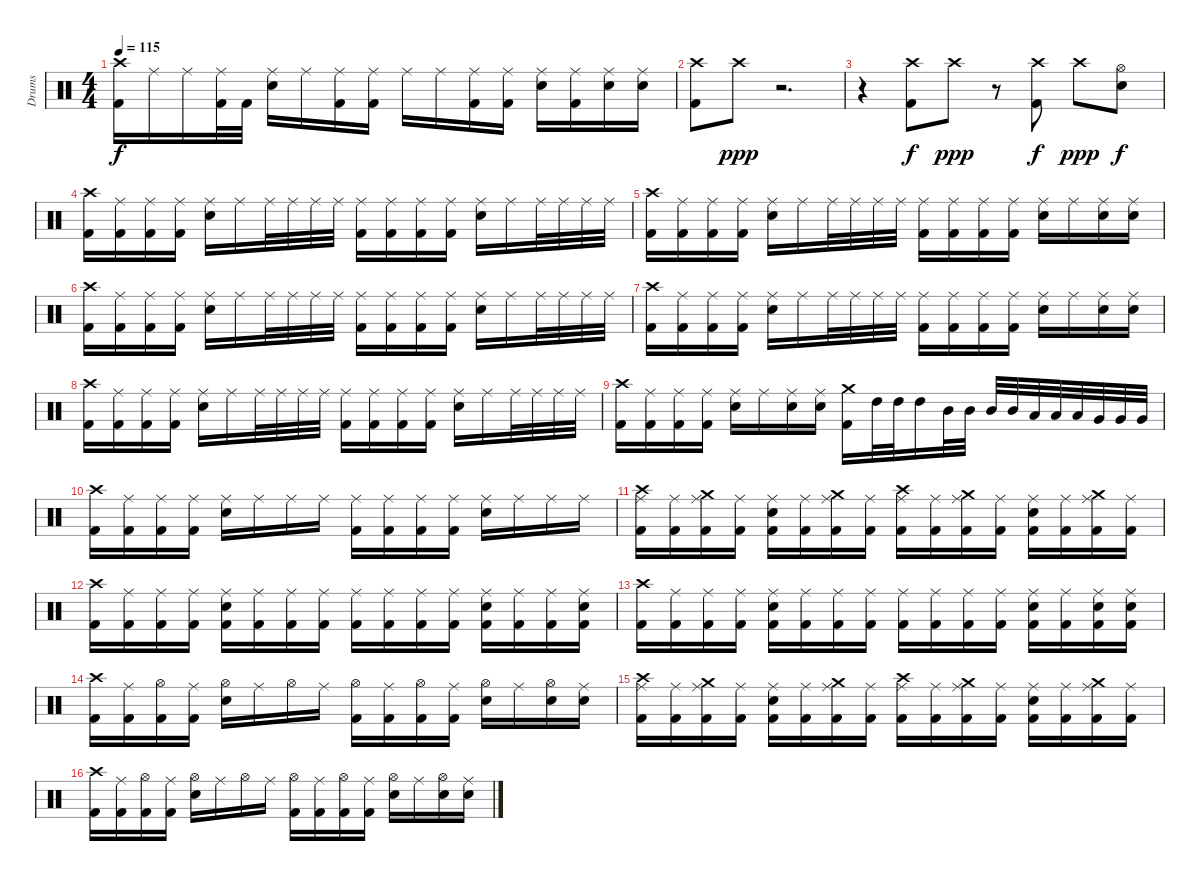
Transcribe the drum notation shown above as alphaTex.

\track ("Drums" "Drums") {instrument percussion}
\staff {score}
\articulation defaults
\ts (4 4)
\tempo 115
\clef neutral
\ks c
("Crash high (hit)" "Kick (hit) 2").16{dy f} "Ride (middle)".16 "Ride (middle)".16 ("Ride (middle)" "Kick (hit) 2").32 "Kick (hit) 2".32 ("Ride (middle)" "Electric Snare (hit)").16 "Ride (middle)".16 ("Ride (middle)" "Kick (hit) 2").16 ("Ride (middle)" "Kick (hit) 2").16 "Ride (middle)".16 "Ride (middle)".16 ("Ride (middle)" "Kick (hit) 2").16 ("Ride (middle)" "Kick (hit) 2").16 ("Ride (middle)" "Electric Snare (hit)").16 ("Ride (middle)" "Kick (hit) 2").16 ("Ride (middle)" "Electric Snare (hit)").16 ("Ride (middle)" "Electric Snare (hit)").16 |
("Crash high (hit)" "Kick (hit) 2").8 "Crash high (hit)".8{dy ppp} r.2{d} |
r.4 ("Crash high (hit)" "Kick (hit) 2").8{dy f} "Crash high (hit)".8{dy ppp} r.8 ("Crash high (hit)" "Kick (hit) 2").8{dy f} "Crash high (hit)".8{dy ppp} ("Hi-Hat (open)" "Electric Snare (hit)").8{dy f} |
("Crash high (hit)" "Kick (hit) 2").16 ("Ride (middle)" "Kick (hit) 2").16 ("Ride (middle)" "Kick (hit) 2").16 ("Ride (middle)" "Kick (hit) 2").16 ("Ride (middle)" "Electric Snare (hit)").16 "Ride (middle)".16 "Ride (middle)".32 "Ride (middle)".32 "Ride (middle)".32 "Ride (middle)".32 ("Ride (middle)" "Kick (hit) 2").16 ("Ride (middle)" "Kick (hit) 2").16 ("Ride (middle)" "Kick (hit) 2").16 ("Ride (middle)" "Kick (hit) 2").16 ("Ride (middle)" "Electric Snare (hit)").16 "Ride (middle)".16 "Ride (middle)".32 "Ride (middle)".32 "Ride (middle)".32 "Ride (middle)".32 |
("Crash high (hit)" "Kick (hit) 2").16 ("Ride (middle)" "Kick (hit) 2").16 ("Ride (middle)" "Kick (hit) 2").16 ("Ride (middle)" "Kick (hit) 2").16 ("Ride (middle)" "Electric Snare (hit)").16 "Ride (middle)".16 "Ride (middle)".32 "Ride (middle)".32 "Ride (middle)".32 "Ride (middle)".32 ("Ride (middle)" "Kick (hit) 2").16 ("Ride (middle)" "Kick (hit) 2").16 ("Ride (middle)" "Kick (hit) 2").16 ("Ride (middle)" "Kick (hit) 2").16 ("Ride (middle)" "Electric Snare (hit)").16 "Ride (middle)".16 ("Ride (middle)" "Electric Snare (hit)").16 ("Ride (middle)" "Electric Snare (hit)").16 |
("Crash high (hit)" "Kick (hit) 2").16 ("Ride (middle)" "Kick (hit) 2").16 ("Ride (middle)" "Kick (hit) 2").16 ("Ride (middle)" "Kick (hit) 2").16 ("Ride (middle)" "Electric Snare (hit)").16 "Ride (middle)".16 "Ride (middle)".32 "Ride (middle)".32 "Ride (middle)".32 "Ride (middle)".32 ("Ride (middle)" "Kick (hit) 2").16 ("Ride (middle)" "Kick (hit) 2").16 ("Ride (middle)" "Kick (hit) 2").16 ("Ride (middle)" "Kick (hit) 2").16 ("Ride (middle)" "Electric Snare (hit)").16 "Ride (middle)".16 "Ride (middle)".32 "Ride (middle)".32 "Ride (middle)".32 "Ride (middle)".32 |
("Crash high (hit)" "Kick (hit) 2").16 ("Ride (middle)" "Kick (hit) 2").16 ("Ride (middle)" "Kick (hit) 2").16 ("Ride (middle)" "Kick (hit) 2").16 ("Ride (middle)" "Electric Snare (hit)").16 "Ride (middle)".16 "Ride (middle)".32 "Ride (middle)".32 "Ride (middle)".32 "Ride (middle)".32 ("Ride (middle)" "Kick (hit) 2").16 ("Ride (middle)" "Kick (hit) 2").16 ("Ride (middle)" "Kick (hit) 2").16 ("Ride (middle)" "Kick (hit) 2").16 ("Ride (middle)" "Electric Snare (hit)").16 "Ride (middle)".16 ("Ride (middle)" "Electric Snare (hit)").16 ("Ride (middle)" "Electric Snare (hit)").16 |
("Crash high (hit)" "Kick (hit) 2").16 ("Ride (middle)" "Kick (hit) 2").16 ("Ride (middle)" "Kick (hit) 2").16 ("Ride (middle)" "Kick (hit) 2").16 ("Ride (middle)" "Electric Snare (hit)").16 "Ride (middle)".16 "Ride (middle)".32 "Ride (middle)".32 "Ride (middle)".32 "Ride (middle)".32 ("Ride (middle)" "Kick (hit) 2").16 ("Ride (middle)" "Kick (hit) 2").16 ("Ride (middle)" "Kick (hit) 2").16 ("Ride (middle)" "Kick (hit) 2").16 ("Ride (middle)" "Electric Snare (hit)").16 "Ride (middle)".16 "Ride (middle)".32 "Ride (middle)".32 "Ride (middle)".32 "Ride (middle)".32 |
("Crash high (hit)" "Kick (hit) 2").16 ("Ride (middle)" "Kick (hit) 2").16 ("Ride (middle)" "Kick (hit) 2").16 ("Ride (middle)" "Kick (hit) 2").16 ("Ride (middle)" "Electric Snare (hit)").16 "Ride (middle)".16 ("Ride (middle)" "Electric Snare (hit)").16 ("Ride (middle)" "Electric Snare (hit)").16 ("Crash medium (hit)" "Kick (hit) 2").16 "High Tom (hit)".32 "High Tom (hit)".32 "High Tom (hit)".16 "Mid Tom (hit)".32 "Mid Tom (hit)".32 "Mid Tom (hit)".32 "Mid Tom (hit)".32 "Low Tom (hit)".32 "Low Tom (hit)".32 "Low Tom (hit)".32 "Very Low Tom (hit)".32 "Very Low Tom (hit)".32 "Very Low Tom (hit)".32 |
("Crash high (hit)" "Kick (hit) 2").16 ("Ride (middle)" "Kick (hit) 2").16 ("Ride (middle)" "Kick (hit) 2").16 ("Ride (middle)" "Kick (hit) 2").16 ("Ride (middle)" "Electric Snare (hit)").16 "Ride (middle)".16 "Ride (middle)".16 "Ride (middle)".16 ("Ride (middle)" "Kick (hit) 2").16 ("Ride (middle)" "Kick (hit) 2").16 ("Ride (middle)" "Kick (hit) 2").16 ("Ride (middle)" "Kick (hit) 2").16 ("Ride (middle)" "Electric Snare (hit)").16 "Ride (middle)".16 "Ride (middle)".16 "Ride (middle)".16 |
("Crash high (hit)" "Ride (middle)" "Kick (hit) 2").16 ("Ride (middle)" "Kick (hit) 2").16 ("Crash medium (hit)" "Ride (middle)" "Kick (hit) 2").16 ("Ride (middle)" "Kick (hit) 2").16 ("Ride (middle)" "Electric Snare (hit)" "Kick (hit) 2").16 ("Ride (middle)" "Kick (hit) 2").16 ("Crash medium (hit)" "Ride (middle)" "Kick (hit) 2").16 ("Ride (middle)" "Kick (hit) 2").16 ("Crash high (hit)" "Ride (middle)" "Kick (hit) 2").16 ("Ride (middle)" "Kick (hit) 2").16 ("Crash medium (hit)" "Ride (middle)" "Kick (hit) 2").16 ("Ride (middle)" "Kick (hit) 2").16 ("Ride (middle)" "Electric Snare (hit)" "Kick (hit) 2").16 ("Ride (middle)" "Kick (hit) 2").16 ("Crash medium (hit)" "Ride (middle)" "Kick (hit) 2").16 ("Ride (middle)" "Kick (hit) 2").16 |
("Crash high (hit)" "Kick (hit) 2").16 ("Ride (middle)" "Kick (hit) 2").16 ("Ride (middle)" "Kick (hit) 2").16 ("Ride (middle)" "Kick (hit) 2").16 ("Ride (middle)" "Electric Snare (hit)" "Kick (hit) 2").16 ("Ride (middle)" "Kick (hit) 2").16 ("Ride (middle)" "Kick (hit) 2").16 ("Ride (middle)" "Kick (hit) 2").16 ("Ride (middle)" "Kick (hit) 2").16 ("Ride (middle)" "Kick (hit) 2").16 ("Ride (middle)" "Kick (hit) 2").16 ("Ride (middle)" "Kick (hit) 2").16 ("Ride (middle)" "Electric Snare (hit)" "Kick (hit) 2").16 ("Ride (middle)" "Kick (hit) 2").16 ("Ride (middle)" "Kick (hit) 2").16 ("Ride (middle)" "Electric Snare (hit)" "Kick (hit) 2").16 |
("Crash high (hit)" "Kick (hit) 2").16 ("Ride (middle)" "Kick (hit) 2").16 ("Ride (middle)" "Kick (hit) 2").16 ("Ride (middle)" "Kick (hit) 2").16 ("Ride (middle)" "Electric Snare (hit)" "Kick (hit) 2").16 ("Ride (middle)" "Kick (hit) 2").16 ("Ride (middle)" "Kick (hit) 2").16 ("Ride (middle)" "Kick (hit) 2").16 ("Ride (middle)" "Kick (hit) 2").16 ("Ride (middle)" "Kick (hit) 2").16 ("Ride (middle)" "Kick (hit) 2").16 ("Ride (middle)" "Kick (hit) 2").16 ("Ride (middle)" "Electric Snare (hit)" "Kick (hit) 2").16 ("Ride (middle)" "Kick (hit) 2").16 ("Ride (middle)" "Electric Snare (hit)" "Kick (hit) 2").16 ("Ride (middle)" "Electric Snare (hit)" "Kick (hit) 2").16 |
("Crash high (hit)" "Kick (hit) 2").16 ("Ride (middle)" "Kick (hit) 2").16 ("Hi-Hat (open)" "Kick (hit) 2").16 ("Ride (middle)" "Kick (hit) 2").16 ("Hi-Hat (open)" "Electric Snare (hit)").16 "Ride (middle)".16 "Hi-Hat (open)".16 "Ride (middle)".16 ("Hi-Hat (open)" "Kick (hit) 2").16 ("Ride (middle)" "Kick (hit) 2").16 ("Hi-Hat (open)" "Kick (hit) 2").16 ("Ride (middle)" "Kick (hit) 2").16 ("Hi-Hat (open)" "Electric Snare (hit)").16 "Ride (middle)".16 ("Hi-Hat (open)" "Electric Snare (hit)").16 ("Ride (middle)" "Electric Snare (hit)").16 |
("Crash high (hit)" "Ride (middle)" "Kick (hit) 2").16 ("Ride (middle)" "Kick (hit) 2").16 ("Crash medium (hit)" "Ride (middle)" "Kick (hit) 2").16 ("Ride (middle)" "Kick (hit) 2").16 ("Ride (middle)" "Electric Snare (hit)" "Kick (hit) 2").16 ("Ride (middle)" "Kick (hit) 2").16 ("Crash medium (hit)" "Ride (middle)" "Kick (hit) 2").16 ("Ride (middle)" "Kick (hit) 2").16 ("Crash high (hit)" "Ride (middle)" "Kick (hit) 2").16 ("Ride (middle)" "Kick (hit) 2").16 ("Crash medium (hit)" "Ride (middle)" "Kick (hit) 2").16 ("Ride (middle)" "Kick (hit) 2").16 ("Ride (middle)" "Electric Snare (hit)" "Kick (hit) 2").16 ("Ride (middle)" "Kick (hit) 2").16 ("Crash medium (hit)" "Ride (middle)" "Kick (hit) 2").16 ("Ride (middle)" "Kick (hit) 2").16 |
("Crash high (hit)" "Kick (hit) 2").16 ("Ride (middle)" "Kick (hit) 2").16 ("Hi-Hat (open)" "Kick (hit) 2").16 ("Ride (middle)" "Kick (hit) 2").16 ("Hi-Hat (open)" "Electric Snare (hit)").16 "Ride (middle)".16 "Hi-Hat (open)".16 "Ride (middle)".16 ("Hi-Hat (open)" "Kick (hit) 2").16 ("Ride (middle)" "Kick (hit) 2").16 ("Hi-Hat (open)" "Kick (hit) 2").16 ("Ride (middle)" "Kick (hit) 2").16 ("Hi-Hat (open)" "Electric Snare (hit)").16 "Ride (middle)".16 ("Hi-Hat (open)" "Electric Snare (hit)").16 ("Ride (middle)" "Electric Snare (hit)").16
